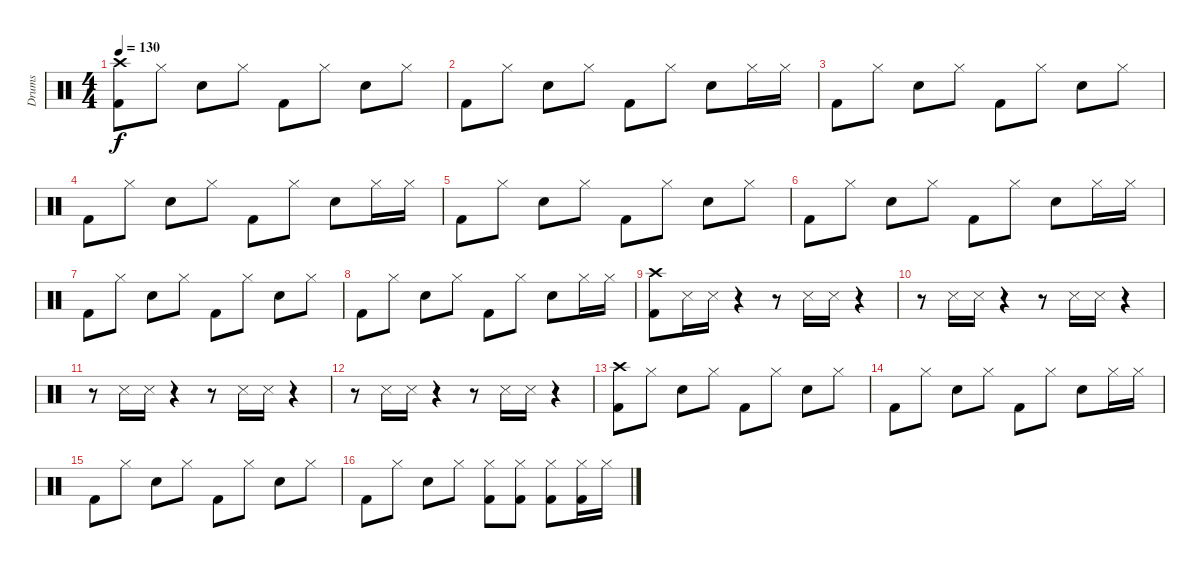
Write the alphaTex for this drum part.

\track ("Drums" "Drums") {instrument percussion}
\staff {score}
\articulation defaults
\ts (4 4)
\tempo 130
\clef neutral
\ks c
("Crash high (hit)" "Kick (hit) 2").8{dy f} "Hi-Hat (closed)".8 "Snare (hit) 2".8 "Hi-Hat (closed)".8 "Kick (hit) 2".8 "Hi-Hat (closed)".8 "Snare (hit) 2".8 "Hi-Hat (closed)".8 |
"Kick (hit) 2".8 "Hi-Hat (closed)".8 "Snare (hit) 2".8 "Hi-Hat (closed)".8 "Kick (hit) 2".8 "Hi-Hat (closed)".8 "Snare (hit) 2".8 "Hi-Hat (closed)".16 "Hi-Hat (closed)".16 |
"Kick (hit) 2".8 "Hi-Hat (closed)".8 "Snare (hit) 2".8 "Hi-Hat (closed)".8 "Kick (hit) 2".8 "Hi-Hat (closed)".8 "Snare (hit) 2".8 "Hi-Hat (closed)".8 |
"Kick (hit) 2".8 "Hi-Hat (closed)".8 "Snare (hit) 2".8 "Hi-Hat (closed)".8 "Kick (hit) 2".8 "Hi-Hat (closed)".8 "Snare (hit) 2".8 "Hi-Hat (closed)".16 "Hi-Hat (closed)".16 |
"Kick (hit) 2".8 "Hi-Hat (closed)".8 "Snare (hit) 2".8 "Hi-Hat (closed)".8 "Kick (hit) 2".8 "Hi-Hat (closed)".8 "Snare (hit) 2".8 "Hi-Hat (closed)".8 |
"Kick (hit) 2".8 "Hi-Hat (closed)".8 "Snare (hit) 2".8 "Hi-Hat (closed)".8 "Kick (hit) 2".8 "Hi-Hat (closed)".8 "Snare (hit) 2".8 "Hi-Hat (closed)".16 "Hi-Hat (closed)".16 |
"Kick (hit) 2".8 "Hi-Hat (closed)".8 "Snare (hit) 2".8 "Hi-Hat (closed)".8 "Kick (hit) 2".8 "Hi-Hat (closed)".8 "Snare (hit) 2".8 "Hi-Hat (closed)".8 |
"Kick (hit) 2".8 "Hi-Hat (closed)".8 "Snare (hit) 2".8 "Hi-Hat (closed)".8 "Kick (hit) 2".8 "Hi-Hat (closed)".8 "Snare (hit) 2".8 "Hi-Hat (closed)".16 "Hi-Hat (closed)".16 |
("Crash high (hit)" "Kick (hit) 2").8 "Snare (side stick) 3".16 "Snare (side stick) 3".16 r.4 r.8 "Snare (side stick) 3".16 "Snare (side stick) 3".16 r.4 |
r.8 "Snare (side stick) 3".16 "Snare (side stick) 3".16 r.4 r.8 "Snare (side stick) 3".16 "Snare (side stick) 3".16 r.4 |
r.8 "Snare (side stick) 3".16 "Snare (side stick) 3".16 r.4 r.8 "Snare (side stick) 3".16 "Snare (side stick) 3".16 r.4 |
r.8 "Snare (side stick) 3".16 "Snare (side stick) 3".16 r.4 r.8 "Snare (side stick) 3".16 "Snare (side stick) 3".16 r.4 |
("Crash high (hit)" "Kick (hit) 2").8 "Hi-Hat (closed)".8 "Snare (hit) 2".8 "Hi-Hat (closed)".8 "Kick (hit) 2".8 "Hi-Hat (closed)".8 "Snare (hit) 2".8 "Hi-Hat (closed)".8 |
"Kick (hit) 2".8 "Hi-Hat (closed)".8 "Snare (hit) 2".8 "Hi-Hat (closed)".8 "Kick (hit) 2".8 "Hi-Hat (closed)".8 "Snare (hit) 2".8 "Hi-Hat (closed)".16 "Hi-Hat (closed)".16 |
"Kick (hit) 2".8 "Hi-Hat (closed)".8 "Snare (hit) 2".8 "Hi-Hat (closed)".8 "Kick (hit) 2".8 "Hi-Hat (closed)".8 "Snare (hit) 2".8 "Hi-Hat (closed)".8 |
"Kick (hit) 2".8 "Hi-Hat (closed)".8 "Snare (hit) 2".8 "Hi-Hat (closed)".8 ("Hi-Hat (closed)" "Kick (hit) 2").8 ("Hi-Hat (closed)" "Kick (hit) 2").8 ("Hi-Hat (closed)" "Kick (hit) 2").8 ("Hi-Hat (closed)" "Kick (hit) 2").16 "Hi-Hat (closed)".16
